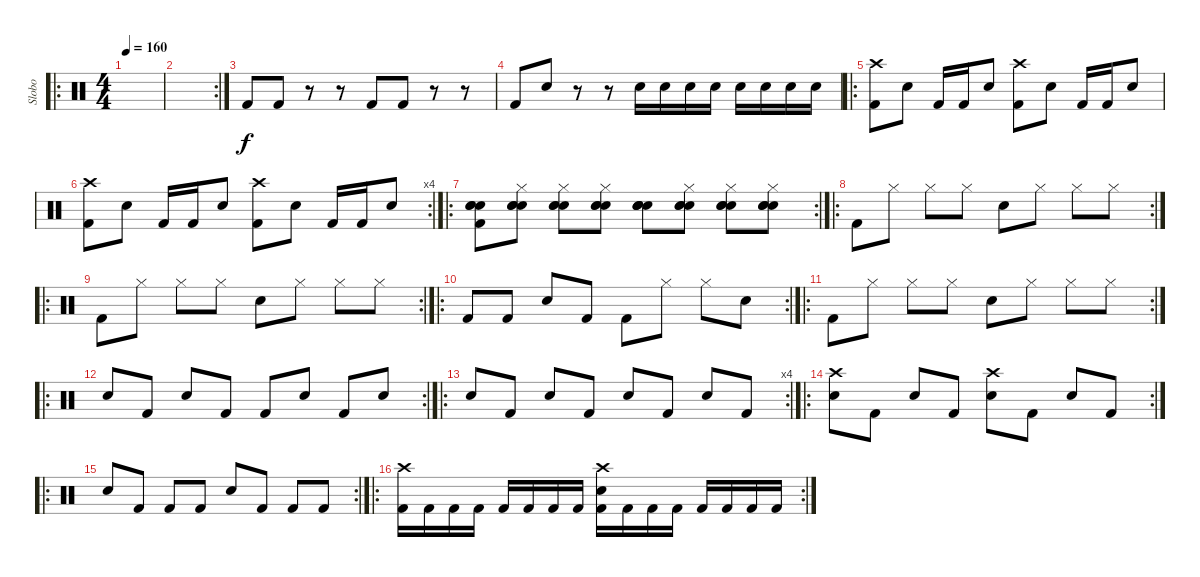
\track ("Slobo" "Slobo") {instrument percussion}
\staff {score}
\articulation defaults
\ro
\ts (4 4)
\tempo 160
\clef neutral
\ks c
|
\rc 2
|
"Kick (hit) 2".8 "Kick (hit) 2".8 r.8 r.8 "Kick (hit) 2".8 "Kick (hit) 2".8 r.8 r.8 |
"Kick (hit) 2".8 "Snare (hit) 2".8 r.8 r.8 "Snare (hit) 2".16 "Snare (hit) 2".16 "Snare (hit) 2".16 "Snare (hit) 2".16 "Snare (hit) 2".16 "Snare (hit) 2".16 "Snare (hit) 2".16 "Snare (hit) 2".16 |
\ro
("Crash high (hit)" "Kick (hit) 2").8 "Snare (hit) 2".8 "Kick (hit) 2".16 "Kick (hit) 2".16 "Snare (hit) 2".8 ("Crash high (hit)" "Kick (hit) 2").8 "Snare (hit) 2".8 "Kick (hit) 2".16 "Kick (hit) 2".16 "Snare (hit) 2".8 |
\rc 4
("Crash high (hit)" "Kick (hit) 2").8 "Snare (hit) 2".8 "Kick (hit) 2".16 "Kick (hit) 2".16 "Snare (hit) 2".8 ("Crash high (hit)" "Kick (hit) 2").8 "Snare (hit) 2".8 "Kick (hit) 2".16 "Kick (hit) 2".16 "Snare (hit) 2".8 |
\ro
\rc 2
("Snare (hit)" "Snare (hit)" "Snare (hit)" "Kick (hit) 2").8 ("Snare (hit)" "Snare (hit)" "Snare (hit)" "Hi-Hat (closed)").8 ("Snare (hit)" "Snare (hit)" "Snare (hit)" "Hi-Hat (closed)").8 ("Snare (hit)" "Snare (hit)" "Snare (hit)" "Hi-Hat (closed)").8 ("Snare (hit)" "Snare (hit)" "Snare (hit)" "Snare (hit) 2").8 ("Snare (hit)" "Snare (hit)" "Snare (hit)" "Hi-Hat (closed)").8 ("Snare (hit)" "Snare (hit)" "Snare (hit)" "Hi-Hat (closed)").8 ("Snare (hit)" "Snare (hit)" "Snare (hit)" "Hi-Hat (closed)").8 |
\ro
\rc 2 "Kick (hit) 2".8 "Hi-Hat (closed)".8 "Hi-Hat (closed)".8 "Hi-Hat (closed)".8 "Snare (hit) 2".8 "Hi-Hat (closed)".8 "Hi-Hat (closed)".8 "Hi-Hat (closed)".8
|
\ro
\rc 2 "Kick (hit) 2".8 "Hi-Hat (closed)".8 "Hi-Hat (closed)".8 "Hi-Hat (closed)".8 "Snare (hit) 2".8 "Hi-Hat (closed)".8 "Hi-Hat (closed)".8 "Hi-Hat (closed)".8
|
\ro
\rc 2 "Kick (hit) 2".8 "Kick (hit) 2".8 "Snare (hit) 2".8 "Kick (hit) 2".8 "Kick (hit) 2".8 "Hi-Hat (closed)".8 "Hi-Hat (closed)".8 "Snare (hit) 2".8
|
\ro
\rc 2 "Kick (hit) 2".8 "Hi-Hat (closed)".8 "Hi-Hat (closed)".8 "Hi-Hat (closed)".8 "Snare (hit) 2".8 "Hi-Hat (closed)".8 "Hi-Hat (closed)".8 "Hi-Hat (closed)".8
|
\ro
\rc 2 "Snare (hit) 2".8 "Kick (hit) 2".8 "Snare (hit) 2".8 "Kick (hit) 2".8 "Kick (hit) 2".8 "Snare (hit) 2".8 "Kick (hit) 2".8 "Snare (hit) 2".8
|
\ro
\rc 4 "Snare (hit) 2".8 "Kick (hit) 2".8 "Snare (hit) 2".8 "Kick (hit) 2".8 "Snare (hit) 2".8 "Kick (hit) 2".8 "Snare (hit) 2".8 "Kick (hit) 2".8
|
\ro
\rc 2
("Crash high (hit)" "Snare (hit) 2").8 "Kick (hit) 2".8 "Snare (hit) 2".8 "Kick (hit) 2".8 ("Crash high (hit)" "Snare (hit) 2").8 "Kick (hit) 2".8 "Snare (hit) 2".8 "Kick (hit) 2".8 |
\ro
\rc 2 "Snare (hit) 2".8 "Kick (hit) 2".8 "Kick (hit) 2".8 "Kick (hit) 2".8 "Snare (hit) 2".8 "Kick (hit) 2".8 "Kick (hit) 2".8 "Kick (hit) 2".8
|
\ro
\rc 2
("Crash high (hit)" "Kick (hit) 2").16 "Kick (hit) 2".16 "Kick (hit) 2".16 "Kick (hit) 2".16 "Kick (hit) 2".16 "Kick (hit) 2".16 "Kick (hit) 2".16 "Kick (hit) 2".16 ("Crash high (hit)" "Snare (hit) 2" "Kick (hit) 2").16 "Kick (hit) 2".16 "Kick (hit) 2".16 "Kick (hit) 2".16 "Kick (hit) 2".16 "Kick (hit) 2".16 "Kick (hit) 2".16 "Kick (hit) 2".16
